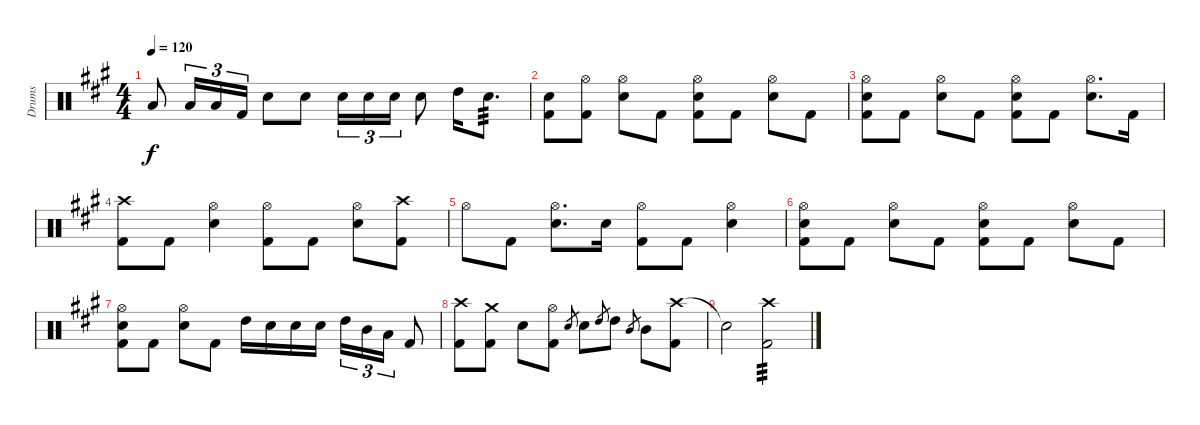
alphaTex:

\track ("Drums" "Drums") {instrument percussion}
\staff {score}
\articulation defaults
\ts (4 4)
\tempo 120
\clef neutral
\ks a "Low Tom (hit)".8{dy f} "Low Tom (hit)".16{tu (3 2)} "Low Tom (hit)".16{tu (3 2)} "Kick (hit) 2".16{tu (3 2)} "Snare (hit) 2".8 "Snare (hit) 2".8 "Snare (hit) 2".16{tu (3 2)} "Snare (hit) 2".16{tu (3 2)} "Snare (hit) 2".16{tu (3 2)} "Snare (hit) 2".8 "High Tom (hit)".16 "Snare (hit) 2".8{d tp 3}
|
("Snare (hit) 2" "Kick (hit) 2").8 ("Hi-Hat (open)" "Kick (hit) 2").8 ("Hi-Hat (open)" "Snare (hit) 2").8 "Kick (hit) 2".8 ("Hi-Hat (open)" "Snare (hit) 2" "Kick (hit) 2").8 "Kick (hit) 2".8 ("Hi-Hat (open)" "Snare (hit) 2").8 "Kick (hit) 2".8 |
("Hi-Hat (open)" "Snare (hit) 2" "Kick (hit) 2").8 "Kick (hit) 2".8 ("Hi-Hat (open)" "Snare (hit) 2").8 "Kick (hit) 2".8 ("Hi-Hat (open)" "Snare (hit) 2" "Kick (hit) 2").8 "Kick (hit) 2".8 ("Hi-Hat (open)" "Snare (hit) 2").8{d} "Kick (hit) 2".16 |
("Crash high (hit)" "Kick (hit) 2").8 "Kick (hit) 2".8 ("Hi-Hat (open)" "Snare (hit) 2").4 ("Hi-Hat (open)" "Kick (hit) 2").8 "Kick (hit) 2".8 ("Hi-Hat (open)" "Snare (hit) 2").8 ("Crash high (hit)" "Kick (hit) 2").8 |
"Hi-Hat (open)".8 "Kick (hit) 2".8 ("Hi-Hat (open)" "Snare (hit) 2").8{d} "Snare (hit) 2".16 ("Hi-Hat (open)" "Kick (hit) 2").8 "Kick (hit) 2".8 ("Hi-Hat (open)" "Snare (hit) 2").4 |
("Hi-Hat (open)" "Snare (hit) 2" "Kick (hit) 2").8 "Kick (hit) 2".8 ("Hi-Hat (open)" "Snare (hit) 2").8 "Kick (hit) 2".8 ("Hi-Hat (open)" "Snare (hit) 2" "Kick (hit) 2").8 "Kick (hit) 2".8 ("Hi-Hat (open)" "Snare (hit) 2").8 "Kick (hit) 2".8 |
("Hi-Hat (open)" "Snare (hit) 2" "Kick (hit) 2").8 "Kick (hit) 2".8 ("Hi-Hat (open)" "Snare (hit) 2").8 "Kick (hit) 2".8 "High Tom (hit)".16 "Snare (hit) 2".16 "Snare (hit) 2".16 "Snare (hit) 2".16 "High Tom (hit)".16{tu (3 2)} "Mid Tom (hit)".16{tu (3 2)} "Low Tom (hit)".16{tu (3 2)} "Kick (hit) 2".8 |
("Crash high (hit)" "Kick (hit) 2").8 ("Crash medium (hit)" "Kick (hit) 2").8 "Snare (hit) 2".8 ("Hi-Hat (open)" "Kick (hit) 2").8 "Snare (hit) 2".8{gr} "Snare (hit) 2".8 "High Tom (hit)".8{gr} "High Tom (hit)".8 "Mid Tom (hit)".8{gr} "Mid Tom (hit)".8 ("Crash high (hit)" "Kick (hit) 2").8 |
"Snare (hit)"{t}.2 ("Crash high (hit)" "Kick (hit) 2").2{tp 3}
